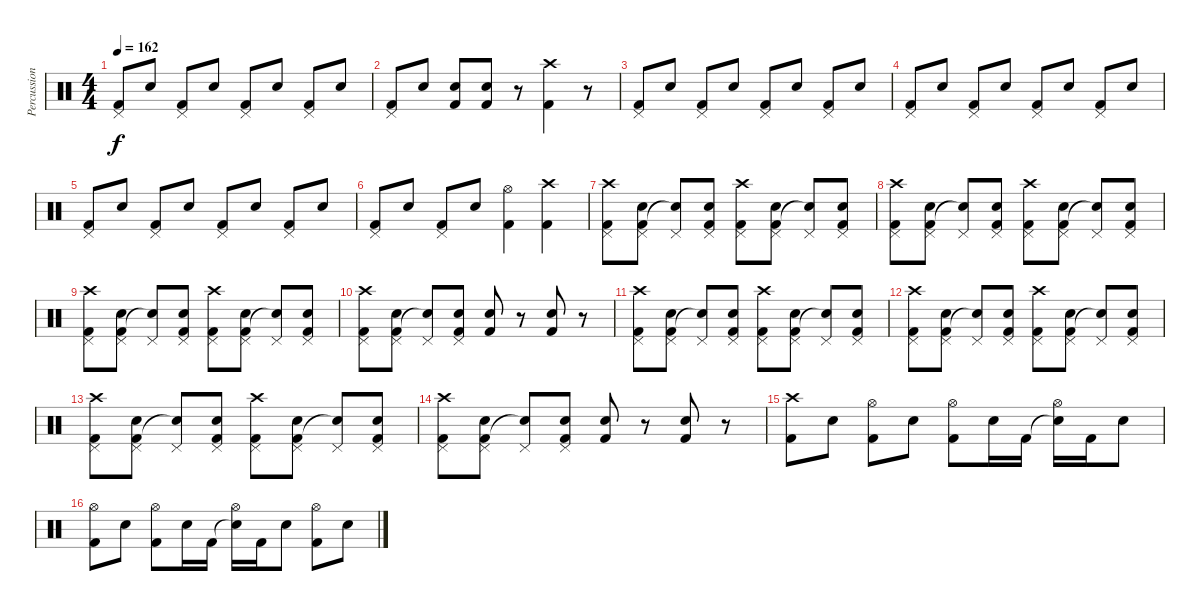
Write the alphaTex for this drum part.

\track ("Percussions" "Percussion") {instrument percussion}
\staff {score}
\articulation defaults
\ts (4 4)
\tempo 162
\clef neutral
\ks c
("Kick (hit) 2" "Pedal Hi-Hat (hit)").8{dy f} "Electric Snare (hit)".8 ("Kick (hit) 2" "Pedal Hi-Hat (hit)").8 "Electric Snare (hit)".8 ("Kick (hit) 2" "Pedal Hi-Hat (hit)").8 "Electric Snare (hit)".8 ("Kick (hit) 2" "Pedal Hi-Hat (hit)").8 "Electric Snare (hit)".8 |
("Kick (hit) 2" "Pedal Hi-Hat (hit)").8 "Electric Snare (hit)".8 ("Kick (hit) 2" "Electric Snare (hit)").8 ("Kick (hit) 2" "Electric Snare (hit)").8 r.8 ("Kick (hit) 2" "Crash high (hit)").4 r.8 |
("Kick (hit) 2" "Pedal Hi-Hat (hit)").8 "Electric Snare (hit)".8 ("Kick (hit) 2" "Pedal Hi-Hat (hit)").8 "Electric Snare (hit)".8 ("Kick (hit) 2" "Pedal Hi-Hat (hit)").8 "Electric Snare (hit)".8 ("Kick (hit) 2" "Pedal Hi-Hat (hit)").8 "Electric Snare (hit)".8 |
("Kick (hit) 2" "Pedal Hi-Hat (hit)").8 "Electric Snare (hit)".8 ("Kick (hit) 2" "Pedal Hi-Hat (hit)").8 "Electric Snare (hit)".8 ("Kick (hit) 2" "Pedal Hi-Hat (hit)").8 "Electric Snare (hit)".8 ("Kick (hit) 2" "Pedal Hi-Hat (hit)").8 "Electric Snare (hit)".8 |
("Kick (hit) 2" "Pedal Hi-Hat (hit)").8 "Electric Snare (hit)".8 ("Kick (hit) 2" "Pedal Hi-Hat (hit)").8 "Electric Snare (hit)".8 ("Kick (hit) 2" "Pedal Hi-Hat (hit)").8 "Electric Snare (hit)".8 ("Kick (hit) 2" "Pedal Hi-Hat (hit)").8 "Electric Snare (hit)".8 |
("Kick (hit) 2" "Pedal Hi-Hat (hit)").8 "Electric Snare (hit)".8 ("Kick (hit) 2" "Pedal Hi-Hat (hit)").8 "Electric Snare (hit)".8 ("Kick (hit) 2" "Hi-Hat (open)").4 ("Kick (hit) 2" "Crash high (hit)").4 |
("Kick (hit) 2" "Crash high (hit)" "Pedal Hi-Hat (hit)").8 ("Kick (hit) 2" "Electric Snare (hit)" "Pedal Hi-Hat (hit)").8 ("Snare (hit)"{t} "Pedal Hi-Hat (hit)").8 ("Kick (hit) 2" "Electric Snare (hit)" "Pedal Hi-Hat (hit)").8 ("Kick (hit) 2" "Crash high (hit)" "Pedal Hi-Hat (hit)").8 ("Kick (hit) 2" "Electric Snare (hit)" "Pedal Hi-Hat (hit)").8 ("Snare (hit)"{t} "Pedal Hi-Hat (hit)").8 ("Kick (hit) 2" "Electric Snare (hit)" "Pedal Hi-Hat (hit)").8 |
("Kick (hit) 2" "Crash high (hit)" "Pedal Hi-Hat (hit)").8 ("Kick (hit) 2" "Electric Snare (hit)" "Pedal Hi-Hat (hit)").8 ("Snare (hit)"{t} "Pedal Hi-Hat (hit)").8 ("Kick (hit) 2" "Electric Snare (hit)" "Pedal Hi-Hat (hit)").8 ("Kick (hit) 2" "Crash high (hit)" "Pedal Hi-Hat (hit)").8 ("Kick (hit) 2" "Electric Snare (hit)" "Pedal Hi-Hat (hit)").8 ("Snare (hit)"{t} "Pedal Hi-Hat (hit)").8 ("Kick (hit) 2" "Electric Snare (hit)" "Pedal Hi-Hat (hit)").8 |
("Kick (hit) 2" "Crash high (hit)" "Pedal Hi-Hat (hit)").8 ("Kick (hit) 2" "Electric Snare (hit)" "Pedal Hi-Hat (hit)").8 ("Snare (hit)"{t} "Pedal Hi-Hat (hit)").8 ("Kick (hit) 2" "Electric Snare (hit)" "Pedal Hi-Hat (hit)").8 ("Kick (hit) 2" "Crash high (hit)" "Pedal Hi-Hat (hit)").8 ("Kick (hit) 2" "Electric Snare (hit)" "Pedal Hi-Hat (hit)").8 ("Snare (hit)"{t} "Pedal Hi-Hat (hit)").8 ("Kick (hit) 2" "Electric Snare (hit)" "Pedal Hi-Hat (hit)").8 |
("Kick (hit) 2" "Crash high (hit)" "Pedal Hi-Hat (hit)").8 ("Kick (hit) 2" "Electric Snare (hit)" "Pedal Hi-Hat (hit)").8 ("Snare (hit)"{t} "Pedal Hi-Hat (hit)").8 ("Kick (hit) 2" "Electric Snare (hit)" "Pedal Hi-Hat (hit)").8 ("Kick (hit) 2" "Electric Snare (hit)").8 r.8 ("Kick (hit) 2" "Electric Snare (hit)").8 r.8 |
("Kick (hit) 2" "Crash high (hit)" "Pedal Hi-Hat (hit)").8 ("Kick (hit) 2" "Electric Snare (hit)" "Pedal Hi-Hat (hit)").8 ("Snare (hit)"{t} "Pedal Hi-Hat (hit)").8 ("Kick (hit) 2" "Electric Snare (hit)" "Pedal Hi-Hat (hit)").8 ("Kick (hit) 2" "Crash high (hit)" "Pedal Hi-Hat (hit)").8 ("Kick (hit) 2" "Electric Snare (hit)" "Pedal Hi-Hat (hit)").8 ("Snare (hit)"{t} "Pedal Hi-Hat (hit)").8 ("Kick (hit) 2" "Electric Snare (hit)" "Pedal Hi-Hat (hit)").8 |
("Kick (hit) 2" "Crash high (hit)" "Pedal Hi-Hat (hit)").8 ("Kick (hit) 2" "Electric Snare (hit)" "Pedal Hi-Hat (hit)").8 ("Snare (hit)"{t} "Pedal Hi-Hat (hit)").8 ("Kick (hit) 2" "Electric Snare (hit)" "Pedal Hi-Hat (hit)").8 ("Kick (hit) 2" "Crash high (hit)" "Pedal Hi-Hat (hit)").8 ("Kick (hit) 2" "Electric Snare (hit)" "Pedal Hi-Hat (hit)").8 ("Snare (hit)"{t} "Pedal Hi-Hat (hit)").8 ("Kick (hit) 2" "Electric Snare (hit)" "Pedal Hi-Hat (hit)").8 |
("Kick (hit) 2" "Crash high (hit)" "Pedal Hi-Hat (hit)").8 ("Kick (hit) 2" "Electric Snare (hit)" "Pedal Hi-Hat (hit)").8 ("Snare (hit)"{t} "Pedal Hi-Hat (hit)").8 ("Kick (hit) 2" "Electric Snare (hit)" "Pedal Hi-Hat (hit)").8 ("Kick (hit) 2" "Crash high (hit)" "Pedal Hi-Hat (hit)").8 ("Kick (hit) 2" "Electric Snare (hit)" "Pedal Hi-Hat (hit)").8 ("Snare (hit)"{t} "Pedal Hi-Hat (hit)").8 ("Kick (hit) 2" "Electric Snare (hit)" "Pedal Hi-Hat (hit)").8 |
("Kick (hit) 2" "Crash high (hit)" "Pedal Hi-Hat (hit)").8 ("Kick (hit) 2" "Electric Snare (hit)" "Pedal Hi-Hat (hit)").8 ("Snare (hit)"{t} "Pedal Hi-Hat (hit)").8 ("Kick (hit) 2" "Electric Snare (hit)" "Pedal Hi-Hat (hit)").8 ("Kick (hit) 2" "Electric Snare (hit)").8 r.8 ("Kick (hit) 2" "Electric Snare (hit)").8 r.8 |
("Kick (hit) 2" "Crash high (hit)").8 "Electric Snare (hit)".8 ("Kick (hit) 2" "Hi-Hat (open)").8 "Electric Snare (hit)".8 ("Kick (hit) 2" "Hi-Hat (open)").8 "Electric Snare (hit)".16 "Kick (hit) 2".16 ("Snare (hit)"{t} "Hi-Hat (open)").16 "Kick (hit) 2".16 "Electric Snare (hit)".8 |
("Kick (hit) 2" "Hi-Hat (open)").8 "Electric Snare (hit)".8 ("Kick (hit) 2" "Hi-Hat (open)").8 "Electric Snare (hit)".16 "Kick (hit) 2".16 ("Snare (hit)"{t} "Hi-Hat (open)").16 "Kick (hit) 2".16 "Electric Snare (hit)".8 ("Kick (hit) 2" "Hi-Hat (open)").8 "Electric Snare (hit)".8
